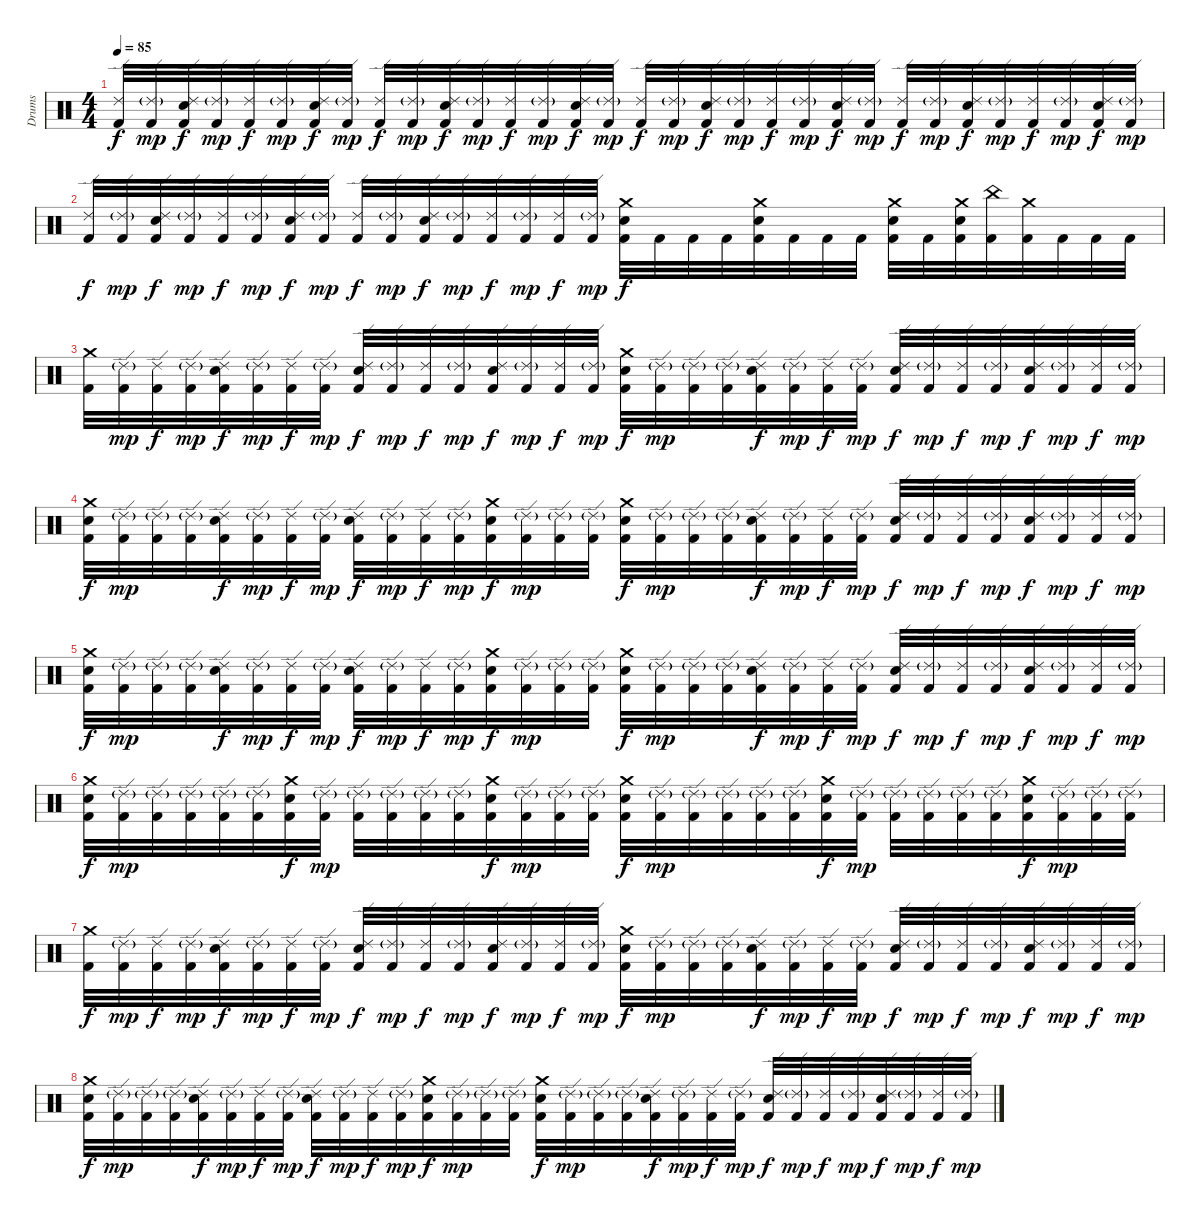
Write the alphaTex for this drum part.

\track ("Drums" "Drums") {instrument percussion}
\staff {score}
\articulation defaults
\ts (4 4)
\tempo 85
\clef neutral
\ks c
("Ride (edge) 2" "Kick (hit) 2").32{dy f} ("Ride (edge) 2"{g} "Kick (hit) 2").32{dy mp} ("Snare (hit) 2" "Ride (edge) 2" "Kick (hit) 2").32{dy f} ("Ride (edge) 2"{g} "Kick (hit) 2").32{dy mp} ("Ride (edge) 2" "Kick (hit) 2").32{dy f} ("Ride (edge) 2"{g} "Kick (hit) 2").32{dy mp} ("Snare (hit) 2" "Ride (edge) 2" "Kick (hit) 2").32{dy f} ("Ride (edge) 2"{g} "Kick (hit) 2").32{dy mp} ("Ride (edge) 2" "Kick (hit) 2").32{dy f} ("Ride (edge) 2"{g} "Kick (hit) 2").32{dy mp} ("Snare (hit) 2" "Ride (edge) 2" "Kick (hit) 2").32{dy f} ("Ride (edge) 2"{g} "Kick (hit) 2").32{dy mp} ("Ride (edge) 2" "Kick (hit) 2").32{dy f} ("Ride (edge) 2"{g} "Kick (hit) 2").32{dy mp} ("Snare (hit) 2" "Ride (edge) 2" "Kick (hit) 2").32{dy f} ("Ride (edge) 2"{g} "Kick (hit) 2").32{dy mp} ("Ride (edge) 2" "Kick (hit) 2").32{dy f} ("Ride (edge) 2"{g} "Kick (hit) 2").32{dy mp} ("Snare (hit) 2" "Ride (edge) 2" "Kick (hit) 2").32{dy f} ("Ride (edge) 2"{g} "Kick (hit) 2").32{dy mp} ("Ride (edge) 2" "Kick (hit) 2").32{dy f} ("Ride (edge) 2"{g} "Kick (hit) 2").32{dy mp} ("Snare (hit) 2" "Ride (edge) 2" "Kick (hit) 2").32{dy f} ("Ride (edge) 2"{g} "Kick (hit) 2").32{dy mp} ("Ride (edge) 2" "Kick (hit) 2").32{dy f} ("Ride (edge) 2"{g} "Kick (hit) 2").32{dy mp} ("Snare (hit) 2" "Ride (edge) 2" "Kick (hit) 2").32{dy f} ("Ride (edge) 2"{g} "Kick (hit) 2").32{dy mp} ("Ride (edge) 2" "Kick (hit) 2").32{dy f} ("Ride (edge) 2"{g} "Kick (hit) 2").32{dy mp} ("Snare (hit) 2" "Ride (edge) 2" "Kick (hit) 2").32{dy f} ("Ride (edge) 2"{g} "Kick (hit) 2").32{dy mp} |
("Ride (edge) 2" "Kick (hit) 2").32{dy f} ("Ride (edge) 2"{g} "Kick (hit) 2").32{dy mp} ("Snare (hit) 2" "Ride (edge) 2" "Kick (hit) 2").32{dy f} ("Ride (edge) 2"{g} "Kick (hit) 2").32{dy mp} ("Ride (edge) 2" "Kick (hit) 2").32{dy f} ("Ride (edge) 2"{g} "Kick (hit) 2").32{dy mp} ("Snare (hit) 2" "Ride (edge) 2" "Kick (hit) 2").32{dy f} ("Ride (edge) 2"{g} "Kick (hit) 2").32{dy mp} ("Ride (edge) 2" "Kick (hit) 2").32{dy f} ("Ride (edge) 2"{g} "Kick (hit) 2").32{dy mp} ("Snare (hit) 2" "Ride (edge) 2" "Kick (hit) 2").32{dy f} ("Ride (edge) 2"{g} "Kick (hit) 2").32{dy mp} ("Ride (edge) 2" "Kick (hit) 2").32{dy f} ("Ride (edge) 2"{g} "Kick (hit) 2").32{dy mp} ("Ride (edge) 2" "Kick (hit) 2").32{dy f} ("Ride (edge) 2"{g} "Kick (hit) 2").32{dy mp} ("Snare (hit) 2" "Crash medium (hit)" "Kick (hit) 2").32{dy f} "Kick (hit) 2".32 "Kick (hit) 2".32 "Kick (hit) 2".32 ("Snare (hit) 2" "Crash medium (hit)" "Kick (hit) 2").32 "Kick (hit) 2".32 "Kick (hit) 2".32 "Kick (hit) 2".32 ("Snare (hit) 2" "Crash medium (hit)" "Kick (hit) 2").32 "Kick (hit) 2".32 ("Snare (hit) 2" "Crash medium (hit)" "Kick (hit) 2").32 ("China (hit)" "Kick (hit) 2").32 ("Crash medium (hit)" "Kick (hit) 2").32 "Kick (hit) 2".32 "Kick (hit) 2".32 "Kick (hit) 2".32 |
("Crash medium (hit)" "Kick (hit) 2").32 ("Ride (edge) 2"{g} "Kick (hit) 2").32{dy mp} ("Ride (edge) 2" "Kick (hit) 2").32{dy f} ("Ride (edge) 2"{g} "Kick (hit) 2").32{dy mp} ("Snare (hit) 2" "Ride (edge) 2" "Kick (hit) 2").32{dy f} ("Ride (edge) 2"{g} "Kick (hit) 2").32{dy mp} ("Ride (edge) 2" "Kick (hit) 2").32{dy f} ("Ride (edge) 2"{g} "Kick (hit) 2").32{dy mp} ("Snare (hit) 2" "Ride (edge) 2" "Kick (hit) 2").32{dy f} ("Ride (edge) 2"{g} "Kick (hit) 2").32{dy mp} ("Ride (edge) 2" "Kick (hit) 2").32{dy f} ("Ride (edge) 2"{g} "Kick (hit) 2").32{dy mp} ("Snare (hit) 2" "Ride (edge) 2" "Kick (hit) 2").32{dy f} ("Ride (edge) 2"{g} "Kick (hit) 2").32{dy mp} ("Ride (edge) 2" "Kick (hit) 2").32{dy f} ("Ride (edge) 2"{g} "Kick (hit) 2").32{dy mp} ("Snare (hit) 2" "Crash medium (hit)" "Kick (hit) 2").32{dy f} ("Ride (edge) 2"{g} "Kick (hit) 2").32{dy mp} ("Ride (edge) 2"{g} "Kick (hit) 2").32 ("Ride (edge) 2"{g} "Kick (hit) 2").32 ("Snare (hit) 2" "Ride (edge) 2" "Kick (hit) 2").32{dy f} ("Ride (edge) 2"{g} "Kick (hit) 2").32{dy mp} ("Ride (edge) 2" "Kick (hit) 2").32{dy f} ("Ride (edge) 2"{g} "Kick (hit) 2").32{dy mp} ("Snare (hit) 2" "Ride (edge) 2" "Kick (hit) 2").32{dy f} ("Ride (edge) 2"{g} "Kick (hit) 2").32{dy mp} ("Ride (edge) 2" "Kick (hit) 2").32{dy f} ("Ride (edge) 2"{g} "Kick (hit) 2").32{dy mp} ("Snare (hit) 2" "Ride (edge) 2" "Kick (hit) 2").32{dy f} ("Ride (edge) 2"{g} "Kick (hit) 2").32{dy mp} ("Ride (edge) 2" "Kick (hit) 2").32{dy f} ("Ride (edge) 2"{g} "Kick (hit) 2").32{dy mp} |
("Snare (hit) 2" "Crash medium (hit)" "Kick (hit) 2").32{dy f} ("Ride (edge) 2"{g} "Kick (hit) 2").32{dy mp} ("Ride (edge) 2"{g} "Kick (hit) 2").32 ("Ride (edge) 2"{g} "Kick (hit) 2").32 ("Snare (hit) 2" "Ride (edge) 2" "Kick (hit) 2").32{dy f} ("Ride (edge) 2"{g} "Kick (hit) 2").32{dy mp} ("Ride (edge) 2" "Kick (hit) 2").32{dy f} ("Ride (edge) 2"{g} "Kick (hit) 2").32{dy mp} ("Snare (hit) 2" "Ride (edge) 2" "Kick (hit) 2").32{dy f} ("Ride (edge) 2"{g} "Kick (hit) 2").32{dy mp} ("Ride (edge) 2" "Kick (hit) 2").32{dy f} ("Ride (edge) 2"{g} "Kick (hit) 2").32{dy mp} ("Snare (hit) 2" "Crash medium (hit)" "Kick (hit) 2").32{dy f} ("Ride (edge) 2"{g} "Kick (hit) 2").32{dy mp} ("Ride (edge) 2"{g} "Kick (hit) 2").32 ("Ride (edge) 2"{g} "Kick (hit) 2").32 ("Snare (hit) 2" "Crash medium (hit)" "Kick (hit) 2").32{dy f} ("Ride (edge) 2"{g} "Kick (hit) 2").32{dy mp} ("Ride (edge) 2"{g} "Kick (hit) 2").32 ("Ride (edge) 2"{g} "Kick (hit) 2").32 ("Snare (hit) 2" "Ride (edge) 2" "Kick (hit) 2").32{dy f} ("Ride (edge) 2"{g} "Kick (hit) 2").32{dy mp} ("Ride (edge) 2" "Kick (hit) 2").32{dy f} ("Ride (edge) 2"{g} "Kick (hit) 2").32{dy mp} ("Snare (hit) 2" "Ride (edge) 2" "Kick (hit) 2").32{dy f} ("Ride (edge) 2"{g} "Kick (hit) 2").32{dy mp} ("Ride (edge) 2" "Kick (hit) 2").32{dy f} ("Ride (edge) 2"{g} "Kick (hit) 2").32{dy mp} ("Snare (hit) 2" "Ride (edge) 2" "Kick (hit) 2").32{dy f} ("Ride (edge) 2"{g} "Kick (hit) 2").32{dy mp} ("Ride (edge) 2" "Kick (hit) 2").32{dy f} ("Ride (edge) 2"{g} "Kick (hit) 2").32{dy mp} |
("Snare (hit) 2" "Crash medium (hit)" "Kick (hit) 2").32{dy f} ("Ride (edge) 2"{g} "Kick (hit) 2").32{dy mp} ("Ride (edge) 2"{g} "Kick (hit) 2").32 ("Ride (edge) 2"{g} "Kick (hit) 2").32 ("Snare (hit) 2" "Ride (edge) 2" "Kick (hit) 2").32{dy f} ("Ride (edge) 2"{g} "Kick (hit) 2").32{dy mp} ("Ride (edge) 2" "Kick (hit) 2").32{dy f} ("Ride (edge) 2"{g} "Kick (hit) 2").32{dy mp} ("Snare (hit) 2" "Ride (edge) 2" "Kick (hit) 2").32{dy f} ("Ride (edge) 2"{g} "Kick (hit) 2").32{dy mp} ("Ride (edge) 2" "Kick (hit) 2").32{dy f} ("Ride (edge) 2"{g} "Kick (hit) 2").32{dy mp} ("Snare (hit) 2" "Crash medium (hit)" "Kick (hit) 2").32{dy f} ("Ride (edge) 2"{g} "Kick (hit) 2").32{dy mp} ("Ride (edge) 2"{g} "Kick (hit) 2").32 ("Ride (edge) 2"{g} "Kick (hit) 2").32 ("Snare (hit) 2" "Crash medium (hit)" "Kick (hit) 2").32{dy f} ("Ride (edge) 2"{g} "Kick (hit) 2").32{dy mp} ("Ride (edge) 2"{g} "Kick (hit) 2").32 ("Ride (edge) 2"{g} "Kick (hit) 2").32 ("Snare (hit) 2" "Ride (edge) 2" "Kick (hit) 2").32{dy f} ("Ride (edge) 2"{g} "Kick (hit) 2").32{dy mp} ("Ride (edge) 2" "Kick (hit) 2").32{dy f} ("Ride (edge) 2"{g} "Kick (hit) 2").32{dy mp} ("Snare (hit) 2" "Ride (edge) 2" "Kick (hit) 2").32{dy f} ("Ride (edge) 2"{g} "Kick (hit) 2").32{dy mp} ("Ride (edge) 2" "Kick (hit) 2").32{dy f} ("Ride (edge) 2"{g} "Kick (hit) 2").32{dy mp} ("Snare (hit) 2" "Ride (edge) 2" "Kick (hit) 2").32{dy f} ("Ride (edge) 2"{g} "Kick (hit) 2").32{dy mp} ("Ride (edge) 2" "Kick (hit) 2").32{dy f} ("Ride (edge) 2"{g} "Kick (hit) 2").32{dy mp} |
("Snare (hit) 2" "Crash medium (hit)" "Kick (hit) 2").32{dy f} ("Ride (edge) 2"{g} "Kick (hit) 2").32{dy mp} ("Ride (edge) 2"{g} "Kick (hit) 2").32 ("Ride (edge) 2"{g} "Kick (hit) 2").32 ("Ride (edge) 2"{g} "Kick (hit) 2").32 ("Ride (edge) 2"{g} "Kick (hit) 2").32 ("Snare (hit) 2" "Crash medium (hit)" "Kick (hit) 2").32{dy f} ("Ride (edge) 2"{g} "Kick (hit) 2").32{dy mp} ("Ride (edge) 2"{g} "Kick (hit) 2").32 ("Ride (edge) 2"{g} "Kick (hit) 2").32 ("Ride (edge) 2"{g} "Kick (hit) 2").32 ("Ride (edge) 2"{g} "Kick (hit) 2").32 ("Snare (hit) 2" "Crash medium (hit)" "Kick (hit) 2").32{dy f} ("Ride (edge) 2"{g} "Kick (hit) 2").32{dy mp} ("Ride (edge) 2"{g} "Kick (hit) 2").32 ("Ride (edge) 2"{g} "Kick (hit) 2").32 ("Snare (hit) 2" "Crash medium (hit)" "Kick (hit) 2").32{dy f} ("Ride (edge) 2"{g} "Kick (hit) 2").32{dy mp} ("Ride (edge) 2"{g} "Kick (hit) 2").32 ("Ride (edge) 2"{g} "Kick (hit) 2").32 ("Ride (edge) 2"{g} "Kick (hit) 2").32 ("Ride (edge) 2"{g} "Kick (hit) 2").32 ("Snare (hit) 2" "Crash medium (hit)" "Kick (hit) 2").32{dy f} ("Ride (edge) 2"{g} "Kick (hit) 2").32{dy mp} ("Ride (edge) 2"{g} "Kick (hit) 2").32 ("Ride (edge) 2"{g} "Kick (hit) 2").32 ("Ride (edge) 2"{g} "Kick (hit) 2").32 ("Ride (edge) 2"{g} "Kick (hit) 2").32 ("Snare (hit) 2" "Crash medium (hit)" "Kick (hit) 2").32{dy f} ("Ride (edge) 2"{g} "Kick (hit) 2").32{dy mp} ("Ride (edge) 2"{g} "Kick (hit) 2").32 ("Ride (edge) 2"{g} "Kick (hit) 2").32 |
("Crash medium (hit)" "Kick (hit) 2").32{dy f} ("Ride (edge) 2"{g} "Kick (hit) 2").32{dy mp} ("Ride (edge) 2" "Kick (hit) 2").32{dy f} ("Ride (edge) 2"{g} "Kick (hit) 2").32{dy mp} ("Snare (hit) 2" "Ride (edge) 2" "Kick (hit) 2").32{dy f} ("Ride (edge) 2"{g} "Kick (hit) 2").32{dy mp} ("Ride (edge) 2" "Kick (hit) 2").32{dy f} ("Ride (edge) 2"{g} "Kick (hit) 2").32{dy mp} ("Snare (hit) 2" "Ride (edge) 2" "Kick (hit) 2").32{dy f} ("Ride (edge) 2"{g} "Kick (hit) 2").32{dy mp} ("Ride (edge) 2" "Kick (hit) 2").32{dy f} ("Ride (edge) 2"{g} "Kick (hit) 2").32{dy mp} ("Snare (hit) 2" "Ride (edge) 2" "Kick (hit) 2").32{dy f} ("Ride (edge) 2"{g} "Kick (hit) 2").32{dy mp} ("Ride (edge) 2" "Kick (hit) 2").32{dy f} ("Ride (edge) 2"{g} "Kick (hit) 2").32{dy mp} ("Snare (hit) 2" "Crash medium (hit)" "Kick (hit) 2").32{dy f} ("Ride (edge) 2"{g} "Kick (hit) 2").32{dy mp} ("Ride (edge) 2"{g} "Kick (hit) 2").32 ("Ride (edge) 2"{g} "Kick (hit) 2").32 ("Snare (hit) 2" "Ride (edge) 2" "Kick (hit) 2").32{dy f} ("Ride (edge) 2"{g} "Kick (hit) 2").32{dy mp} ("Ride (edge) 2" "Kick (hit) 2").32{dy f} ("Ride (edge) 2"{g} "Kick (hit) 2").32{dy mp} ("Snare (hit) 2" "Ride (edge) 2" "Kick (hit) 2").32{dy f} ("Ride (edge) 2"{g} "Kick (hit) 2").32{dy mp} ("Ride (edge) 2" "Kick (hit) 2").32{dy f} ("Ride (edge) 2"{g} "Kick (hit) 2").32{dy mp} ("Snare (hit) 2" "Ride (edge) 2" "Kick (hit) 2").32{dy f} ("Ride (edge) 2"{g} "Kick (hit) 2").32{dy mp} ("Ride (edge) 2" "Kick (hit) 2").32{dy f} ("Ride (edge) 2"{g} "Kick (hit) 2").32{dy mp} |
("Snare (hit) 2" "Crash medium (hit)" "Kick (hit) 2").32{dy f} ("Ride (edge) 2"{g} "Kick (hit) 2").32{dy mp} ("Ride (edge) 2"{g} "Kick (hit) 2").32 ("Ride (edge) 2"{g} "Kick (hit) 2").32 ("Snare (hit) 2" "Ride (edge) 2" "Kick (hit) 2").32{dy f} ("Ride (edge) 2"{g} "Kick (hit) 2").32{dy mp} ("Ride (edge) 2" "Kick (hit) 2").32{dy f} ("Ride (edge) 2"{g} "Kick (hit) 2").32{dy mp} ("Snare (hit) 2" "Ride (edge) 2" "Kick (hit) 2").32{dy f} ("Ride (edge) 2"{g} "Kick (hit) 2").32{dy mp} ("Ride (edge) 2" "Kick (hit) 2").32{dy f} ("Ride (edge) 2"{g} "Kick (hit) 2").32{dy mp} ("Snare (hit) 2" "Crash medium (hit)" "Kick (hit) 2").32{dy f} ("Ride (edge) 2"{g} "Kick (hit) 2").32{dy mp} ("Ride (edge) 2"{g} "Kick (hit) 2").32 ("Ride (edge) 2"{g} "Kick (hit) 2").32 ("Snare (hit) 2" "Crash medium (hit)" "Kick (hit) 2").32{dy f} ("Ride (edge) 2"{g} "Kick (hit) 2").32{dy mp} ("Ride (edge) 2"{g} "Kick (hit) 2").32 ("Ride (edge) 2"{g} "Kick (hit) 2").32 ("Snare (hit) 2" "Ride (edge) 2" "Kick (hit) 2").32{dy f} ("Ride (edge) 2"{g} "Kick (hit) 2").32{dy mp} ("Ride (edge) 2" "Kick (hit) 2").32{dy f} ("Ride (edge) 2"{g} "Kick (hit) 2").32{dy mp} ("Snare (hit) 2" "Ride (edge) 2" "Kick (hit) 2").32{dy f} ("Ride (edge) 2"{g} "Kick (hit) 2").32{dy mp} ("Ride (edge) 2" "Kick (hit) 2").32{dy f} ("Ride (edge) 2"{g} "Kick (hit) 2").32{dy mp} ("Snare (hit) 2" "Ride (edge) 2" "Kick (hit) 2").32{dy f} ("Ride (edge) 2"{g} "Kick (hit) 2").32{dy mp} ("Ride (edge) 2" "Kick (hit) 2").32{dy f} ("Ride (edge) 2"{g} "Kick (hit) 2").32{dy mp}
